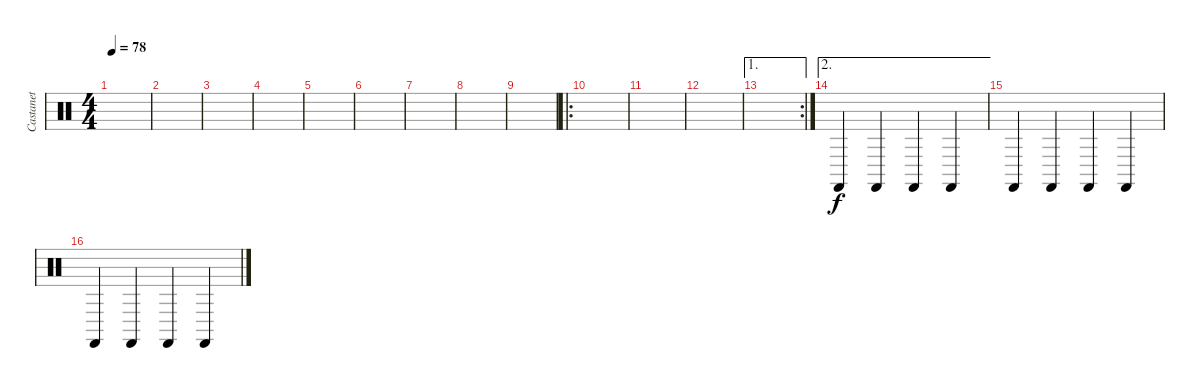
\track ("Castanet" "Castanet") {instrument percussion}
\staff {score}
\articulation defaults
\ts (4 4)
\tempo 78
\clef neutral
\ks c
|
|
|
|
|
|
|
|
|
\ro
|
|
|
\ae 1
\rc 2
|
\ae 2 "Castanets (hit)".4 "Castanets (hit)".4 "Castanets (hit)".4 "Castanets (hit)".4
|
"Castanets (hit)".4 "Castanets (hit)".4 "Castanets (hit)".4 "Castanets (hit)".4 |
"Castanets (hit)".4 "Castanets (hit)".4 "Castanets (hit)".4 "Castanets (hit)".4
